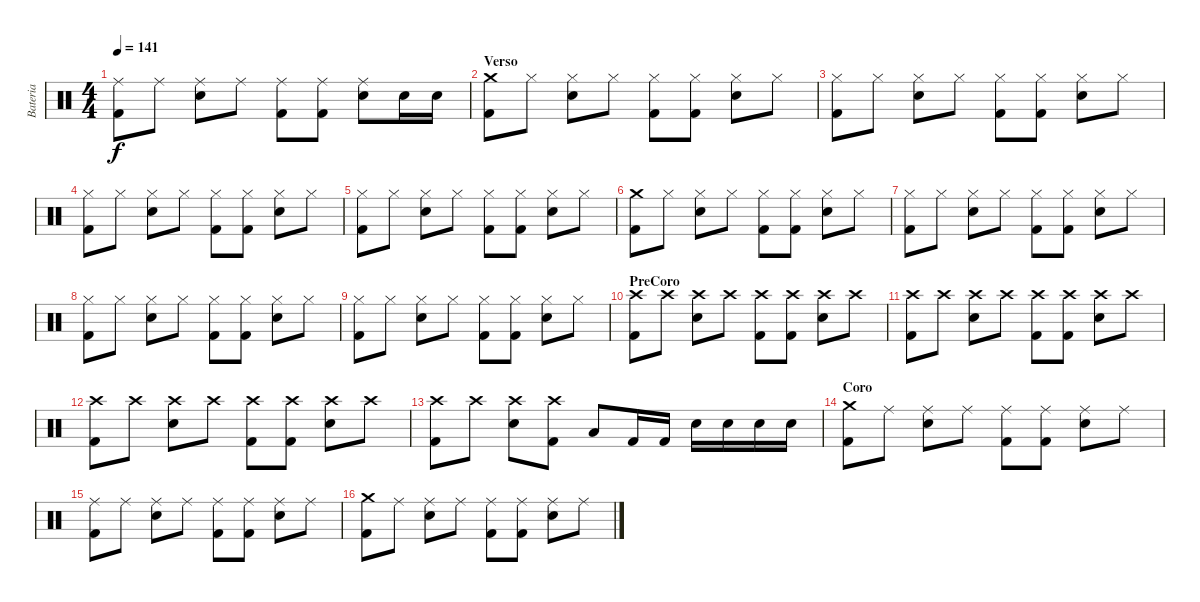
\track ("Bateria" "Bateria") {instrument percussion}
\staff {score}
\articulation defaults
\ts (4 4)
\tempo 141
\clef neutral
\ks c
("Ride (middle)" "Kick (hit) 2").8{dy f} "Ride (middle)".8 ("Ride (middle)" "Electric Snare (hit)").8 "Ride (middle)".8 ("Ride (middle)" "Kick (hit) 2").8 ("Ride (middle)" "Kick (hit) 2").8 ("Ride (middle)" "Electric Snare (hit)").8 "Electric Snare (hit)".16 "Electric Snare (hit)".16 |
\section ("" "Verso")
("Crash medium (hit)" "Kick (hit) 2").8 "Hi-Hat (closed)".8 ("Hi-Hat (closed)" "Electric Snare (hit)").8 "Hi-Hat (closed)".8 ("Hi-Hat (closed)" "Kick (hit) 2").8 ("Hi-Hat (closed)" "Kick (hit) 2").8 ("Hi-Hat (closed)" "Electric Snare (hit)").8 "Hi-Hat (closed)".8 |
("Hi-Hat (closed)" "Kick (hit) 2").8 "Hi-Hat (closed)".8 ("Hi-Hat (closed)" "Electric Snare (hit)").8 "Hi-Hat (closed)".8 ("Hi-Hat (closed)" "Kick (hit) 2").8 ("Hi-Hat (closed)" "Kick (hit) 2").8 ("Hi-Hat (closed)" "Electric Snare (hit)").8 "Hi-Hat (closed)".8 |
("Hi-Hat (closed)" "Kick (hit) 2").8 "Hi-Hat (closed)".8 ("Hi-Hat (closed)" "Electric Snare (hit)").8 "Hi-Hat (closed)".8 ("Hi-Hat (closed)" "Kick (hit) 2").8 ("Hi-Hat (closed)" "Kick (hit) 2").8 ("Hi-Hat (closed)" "Electric Snare (hit)").8 "Hi-Hat (closed)".8 |
("Hi-Hat (closed)" "Kick (hit) 2").8 "Hi-Hat (closed)".8 ("Hi-Hat (closed)" "Electric Snare (hit)").8 "Hi-Hat (closed)".8 ("Hi-Hat (closed)" "Kick (hit) 2").8 ("Hi-Hat (closed)" "Kick (hit) 2").8 ("Hi-Hat (closed)" "Electric Snare (hit)").8 "Hi-Hat (closed)".8 |
("Crash medium (hit)" "Kick (hit) 2").8 "Hi-Hat (closed)".8 ("Hi-Hat (closed)" "Electric Snare (hit)").8 "Hi-Hat (closed)".8 ("Hi-Hat (closed)" "Kick (hit) 2").8 ("Hi-Hat (closed)" "Kick (hit) 2").8 ("Hi-Hat (closed)" "Electric Snare (hit)").8 "Hi-Hat (closed)".8 |
("Hi-Hat (closed)" "Kick (hit) 2").8 "Hi-Hat (closed)".8 ("Hi-Hat (closed)" "Electric Snare (hit)").8 "Hi-Hat (closed)".8 ("Hi-Hat (closed)" "Kick (hit) 2").8 ("Hi-Hat (closed)" "Kick (hit) 2").8 ("Hi-Hat (closed)" "Electric Snare (hit)").8 "Hi-Hat (closed)".8 |
("Hi-Hat (closed)" "Kick (hit) 2").8 "Hi-Hat (closed)".8 ("Hi-Hat (closed)" "Electric Snare (hit)").8 "Hi-Hat (closed)".8 ("Hi-Hat (closed)" "Kick (hit) 2").8 ("Hi-Hat (closed)" "Kick (hit) 2").8 ("Hi-Hat (closed)" "Electric Snare (hit)").8 "Hi-Hat (closed)".8 |
("Hi-Hat (closed)" "Kick (hit) 2").8 "Hi-Hat (closed)".8 ("Hi-Hat (closed)" "Electric Snare (hit)").8 "Hi-Hat (closed)".8 ("Hi-Hat (closed)" "Kick (hit) 2").8 ("Hi-Hat (closed)" "Kick (hit) 2").8 ("Hi-Hat (closed)" "Electric Snare (hit)").8 "Hi-Hat (closed)".8 |
\section ("" "PreCoro")
("Crash high (hit)" "Kick (hit) 2").8 "Crash high (hit)".8 ("Crash high (hit)" "Electric Snare (hit)").8 "Crash high (hit)".8 ("Crash high (hit)" "Kick (hit) 2").8 ("Crash high (hit)" "Kick (hit) 2").8 ("Crash high (hit)" "Electric Snare (hit)").8 "Crash high (hit)".8 |
("Crash high (hit)" "Kick (hit) 2").8 "Crash high (hit)".8 ("Crash high (hit)" "Electric Snare (hit)").8 "Crash high (hit)".8 ("Crash high (hit)" "Kick (hit) 2").8 ("Crash high (hit)" "Kick (hit) 2").8 ("Crash high (hit)" "Electric Snare (hit)").8 "Crash high (hit)".8 |
("Crash high (hit)" "Kick (hit) 2").8 "Crash high (hit)".8 ("Crash high (hit)" "Electric Snare (hit)").8 "Crash high (hit)".8 ("Crash high (hit)" "Kick (hit) 2").8 ("Crash high (hit)" "Kick (hit) 2").8 ("Crash high (hit)" "Electric Snare (hit)").8 "Crash high (hit)".8 |
("Crash high (hit)" "Kick (hit) 2").8 "Crash high (hit)".8 ("Crash high (hit)" "Electric Snare (hit)").8 ("Crash high (hit)" "Kick (hit) 2").8 "Low Tom (hit)".8 "Kick (hit) 2".16 "Kick (hit) 2".16 "Electric Snare (hit)".16 "Electric Snare (hit)".16 "Electric Snare (hit)".16 "Electric Snare (hit)".16 |
\section ("" "Coro")
("Crash medium (hit)" "Kick (hit) 2").8 "Ride (middle)".8 ("Ride (middle)" "Electric Snare (hit)").8 "Ride (middle)".8 ("Ride (middle)" "Kick (hit) 2").8 ("Ride (middle)" "Kick (hit) 2").8 ("Ride (middle)" "Electric Snare (hit)").8 "Ride (middle)".8 |
("Ride (middle)" "Kick (hit) 2").8 "Ride (middle)".8 ("Ride (middle)" "Electric Snare (hit)").8 "Ride (middle)".8 ("Ride (middle)" "Kick (hit) 2").8 ("Ride (middle)" "Kick (hit) 2").8 ("Ride (middle)" "Electric Snare (hit)").8 "Ride (middle)".8 |
("Crash medium (hit)" "Kick (hit) 2").8 "Ride (middle)".8 ("Ride (middle)" "Electric Snare (hit)").8 "Ride (middle)".8 ("Ride (middle)" "Kick (hit) 2").8 ("Ride (middle)" "Kick (hit) 2").8 ("Ride (middle)" "Electric Snare (hit)").8 "Ride (middle)".8
